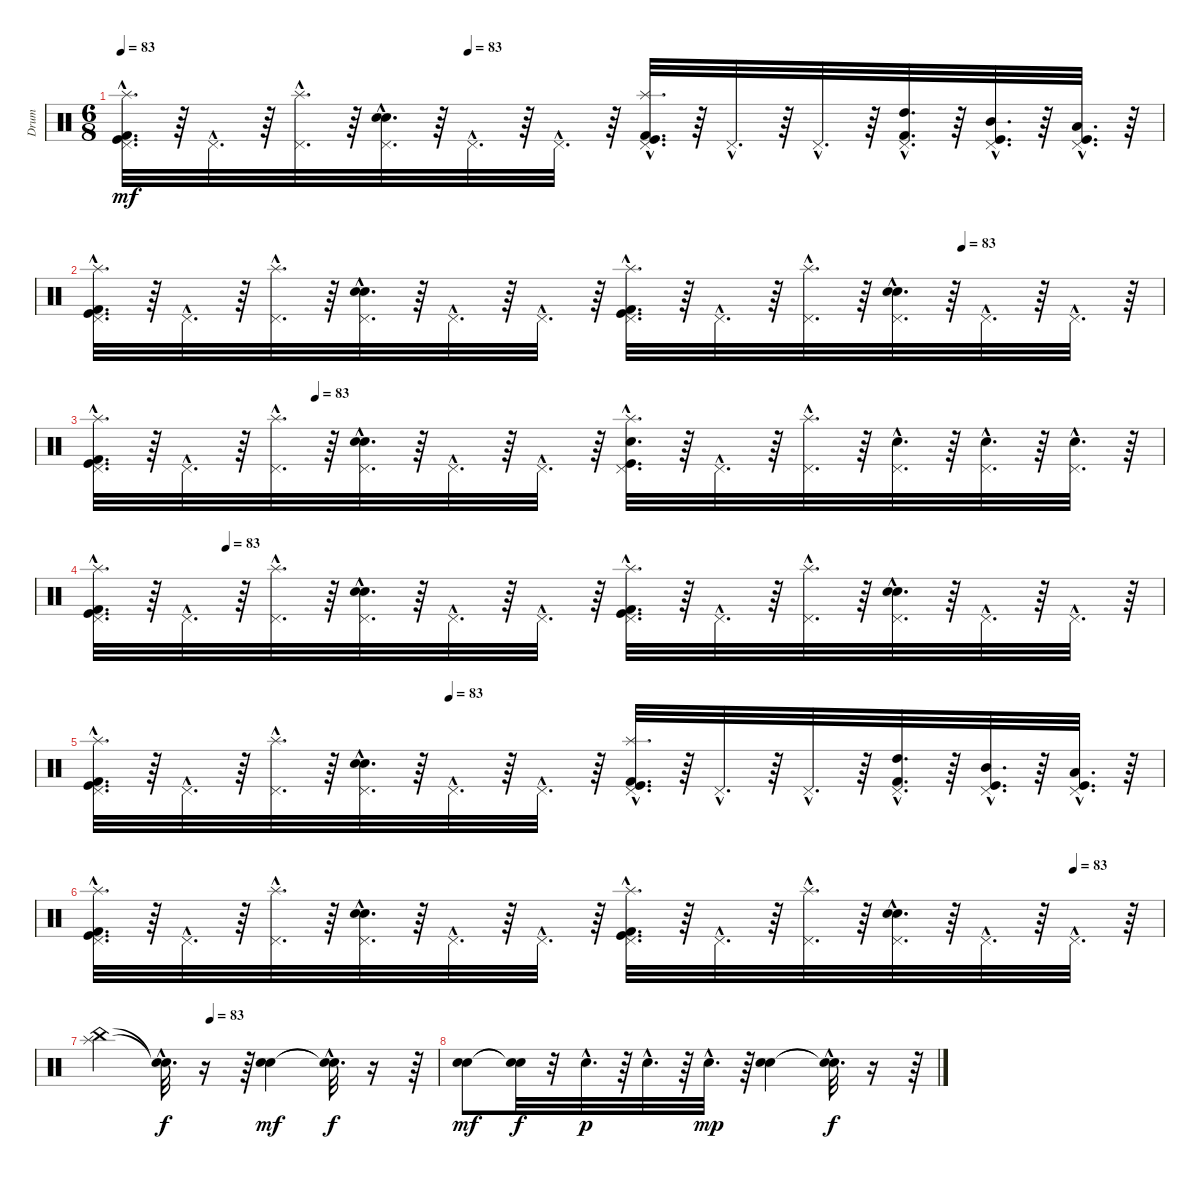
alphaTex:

\track ("Drum" "Drum") {instrument percussion}
\staff {score}
\articulation defaults
\ts (6 8)
\tempo 83
\tempo (83 0.3333333333333333)
\clef neutral
\ks c
("Kick (hit) 2"{hac} "Pedal Hi-Hat (hit)"{hac} "Splash (hit)"{hac} "Kick (hit)"{hac}).32{d dy mf} r.64 "Pedal Hi-Hat (hit)"{hac}.32{d} r.64 ("Pedal Hi-Hat (hit)"{hac} "Splash (hit)"{hac}).32{d} r.64 ("Pedal Hi-Hat (hit)"{hac} "Snare (hit) 2"{hac} "Electric Snare (hit)"{hac}).32{d} r.64 "Pedal Hi-Hat (hit)"{hac}.32{d} r.64 "Pedal Hi-Hat (hit)"{hac}.32{d} r.64 ("Kick (hit) 2"{hac} "Splash (hit)"{hac} "Pedal Hi-Hat (hit)"{hac} "Kick (hit)"{hac}).32{d} r.64 "Pedal Hi-Hat (hit)"{hac}.32{d} r.64 "Pedal Hi-Hat (hit)"{hac}.32{d} r.64 ("Kick (hit) 2"{hac} "High Tom (hit)"{hac} "Pedal Hi-Hat (hit)"{hac}).32{d} r.64 ("Kick (hit)"{hac} "Pedal Hi-Hat (hit)"{hac} "Mid Tom (hit)"{hac}).32{d} r.64 ("Kick (hit)"{hac} "Pedal Hi-Hat (hit)"{hac} "Low Tom (hit)"{hac}).32{d} r.64 |
\tempo (83 0.8125)
("Kick (hit) 2"{hac} "Pedal Hi-Hat (hit)"{hac} "Splash (hit)"{hac} "Kick (hit)"{hac}).32{d} r.64 "Pedal Hi-Hat (hit)"{hac}.32{d} r.64 ("Splash (hit)"{hac} "Pedal Hi-Hat (hit)"{hac}).32{d} r.64 ("Snare (hit) 2"{hac} "Electric Snare (hit)"{hac} "Pedal Hi-Hat (hit)"{hac}).32{d} r.64 "Pedal Hi-Hat (hit)"{hac}.32{d} r.64 "Pedal Hi-Hat (hit)"{hac}.32{d} r.64 ("Kick (hit) 2"{hac} "Pedal Hi-Hat (hit)"{hac} "Splash (hit)"{hac} "Kick (hit)"{hac}).32{d} r.64 "Pedal Hi-Hat (hit)"{hac}.32{d} r.64 ("Splash (hit)"{hac} "Pedal Hi-Hat (hit)"{hac}).32{d} r.64 ("Electric Snare (hit)"{hac} "Snare (hit) 2"{hac} "Pedal Hi-Hat (hit)"{hac}).32{d} r.64 "Pedal Hi-Hat (hit)"{hac}.32{d} r.64 "Pedal Hi-Hat (hit)"{hac}.32{d} r.64 |
\tempo (83 0.20833333333333334)
("Kick (hit) 2"{hac} "Pedal Hi-Hat (hit)"{hac} "Kick (hit)"{hac} "Splash (hit)"{hac}).32{d} r.64 "Pedal Hi-Hat (hit)"{hac}.32{d} r.64 ("Pedal Hi-Hat (hit)"{hac} "Splash (hit)"{hac}).32{d} r.64 ("Pedal Hi-Hat (hit)"{hac} "Electric Snare (hit)"{hac} "Snare (hit) 2"{hac}).32{d} r.64 "Pedal Hi-Hat (hit)"{hac}.32{d} r.64 "Pedal Hi-Hat (hit)"{hac}.32{d} r.64 ("Pedal Hi-Hat (hit)"{hac} "Splash (hit)"{hac} "Electric Snare (hit)"{hac} "Kick (hit)"{hac}).32{d} r.64 "Pedal Hi-Hat (hit)"{hac}.32{d} r.64 ("Splash (hit)"{hac} "Pedal Hi-Hat (hit)"{hac}).32{d} r.64 ("Snare (hit) 2"{hac} "Pedal Hi-Hat (hit)"{hac}).32{d} r.64 ("Snare (hit) 2"{hac} "Pedal Hi-Hat (hit)"{hac}).32{d} r.64 ("Snare (hit) 2"{hac} "Pedal Hi-Hat (hit)"{hac}).32{d} r.64 |
\tempo (83 0.125)
("Kick (hit) 2"{hac} "Splash (hit)"{hac} "Pedal Hi-Hat (hit)"{hac} "Kick (hit)"{hac}).32{d} r.64 "Pedal Hi-Hat (hit)"{hac}.32{d} r.64 ("Pedal Hi-Hat (hit)"{hac} "Splash (hit)"{hac}).32{d} r.64 ("Pedal Hi-Hat (hit)"{hac} "Electric Snare (hit)"{hac} "Snare (hit) 2"{hac}).32{d} r.64 "Pedal Hi-Hat (hit)"{hac}.32{d} r.64 "Pedal Hi-Hat (hit)"{hac}.32{d} r.64 ("Kick (hit) 2"{hac} "Pedal Hi-Hat (hit)"{hac} "Kick (hit)"{hac} "Splash (hit)"{hac}).32{d} r.64 "Pedal Hi-Hat (hit)"{hac}.32{d} r.64 ("Splash (hit)"{hac} "Pedal Hi-Hat (hit)"{hac}).32{d} r.64 ("Snare (hit) 2"{hac} "Electric Snare (hit)"{hac} "Pedal Hi-Hat (hit)"{hac}).32{d} r.64 "Pedal Hi-Hat (hit)"{hac}.32{d} r.64 "Pedal Hi-Hat (hit)"{hac}.32{d} r.64 |
\tempo (83 0.3333333333333333)
("Kick (hit) 2"{hac} "Kick (hit)"{hac} "Splash (hit)"{hac} "Pedal Hi-Hat (hit)"{hac}).32{d} r.64 "Pedal Hi-Hat (hit)"{hac}.32{d} r.64 ("Splash (hit)"{hac} "Pedal Hi-Hat (hit)"{hac}).32{d} r.64 ("Electric Snare (hit)"{hac} "Snare (hit) 2"{hac} "Pedal Hi-Hat (hit)"{hac}).32{d} r.64 "Pedal Hi-Hat (hit)"{hac}.32{d} r.64 "Pedal Hi-Hat (hit)"{hac}.32{d} r.64 ("Kick (hit) 2"{hac} "Kick (hit)"{hac} "Pedal Hi-Hat (hit)"{hac} "Splash (hit)"{hac}).32{d} r.64 "Pedal Hi-Hat (hit)"{hac}.32{d} r.64 "Pedal Hi-Hat (hit)"{hac}.32{d} r.64 ("Kick (hit) 2"{hac} "Pedal Hi-Hat (hit)"{hac} "High Tom (hit)"{hac}).32{d} r.64 ("Kick (hit)"{hac} "Mid Tom (hit)"{hac} "Pedal Hi-Hat (hit)"{hac}).32{d} r.64 ("Kick (hit)"{hac} "Low Tom (hit)"{hac} "Pedal Hi-Hat (hit)"{hac}).32{d} r.64 |
\tempo (83 0.9166666666666666)
("Kick (hit) 2"{hac} "Pedal Hi-Hat (hit)"{hac} "Kick (hit)"{hac} "Splash (hit)"{hac}).32{d} r.64 "Pedal Hi-Hat (hit)"{hac}.32{d} r.64 ("Splash (hit)"{hac} "Pedal Hi-Hat (hit)"{hac}).32{d} r.64 ("Electric Snare (hit)"{hac} "Pedal Hi-Hat (hit)"{hac} "Snare (hit) 2"{hac}).32{d} r.64 "Pedal Hi-Hat (hit)"{hac}.32{d} r.64 "Pedal Hi-Hat (hit)"{hac}.32{d} r.64 ("Kick (hit) 2"{hac} "Pedal Hi-Hat (hit)"{hac} "Kick (hit)"{hac} "Splash (hit)"{hac}).32{d} r.64 "Pedal Hi-Hat (hit)"{hac}.32{d} r.64 ("Splash (hit)"{hac} "Pedal Hi-Hat (hit)"{hac}).32{d} r.64 ("Pedal Hi-Hat (hit)"{hac} "Electric Snare (hit)"{hac} "Snare (hit) 2"{hac}).32{d} r.64 "Pedal Hi-Hat (hit)"{hac}.32{d} r.64 "Pedal Hi-Hat (hit)"{hac}.32{d} r.64 |
\tempo (83 0.3333333333333333)
("Splash (hit)" "China (hit)").4 ("Snare (hit)"{hac t} "Snare (hit)"{hac t}).32{d dy f} r.16 r.64 ("Electric Snare (hit)" "Snare (hit) 2").4{dy mf} ("Snare (hit)"{hac t} "Snare (hit)"{hac t}).32{d dy f} r.16 r.64 |
("Electric Snare (hit)" "Snare (hit) 2").8{dy mf} ("Snare (hit)"{t} "Snare (hit)"{t}).32{dy f} r.32 "Snare (hit) 2"{hac}.32{d dy p} r.64 "Snare (hit) 2"{hac}.32{d} r.64 "Snare (hit) 2"{hac}.32{d dy mp} r.64 ("Electric Snare (hit)" "Snare (hit) 2").4 ("Snare (hit)"{hac t} "Snare (hit)"{hac t}).32{d dy f} r.16 r.64
